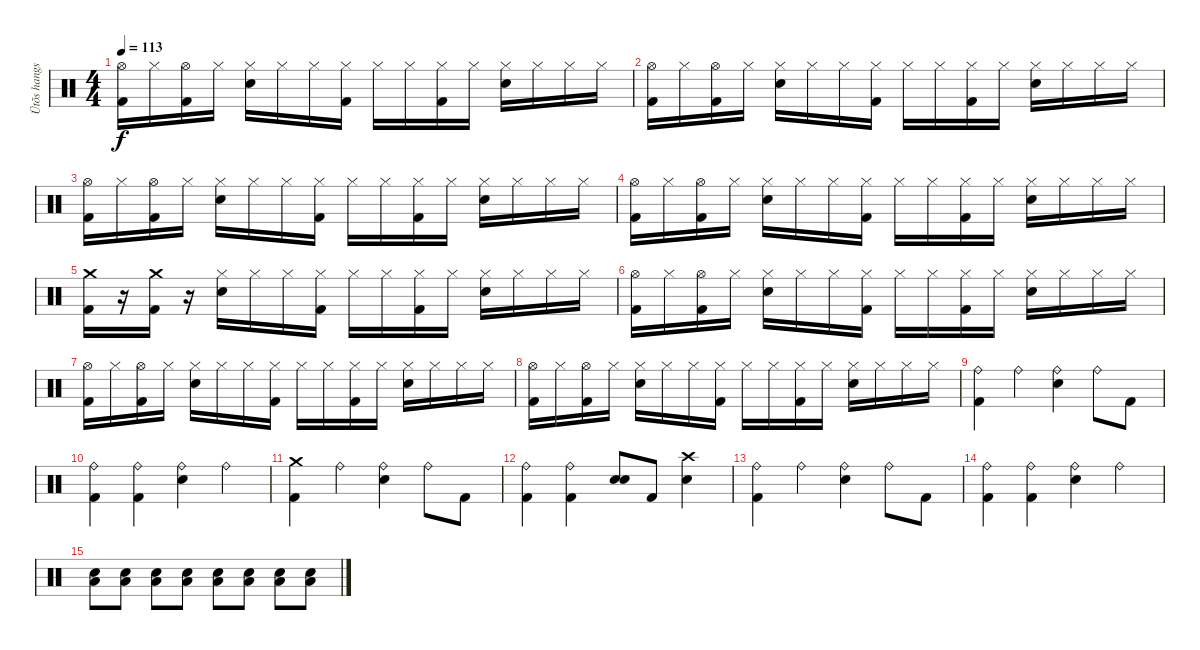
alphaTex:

\track ("Ütõs hangszer" "Ütõs hangs") {instrument percussion}
\staff {score}
\articulation defaults
\ts (4 4)
\tempo 113
\clef neutral
\ks c
("Hi-Hat (open)" "Kick (hit) 2").16{dy f} "Hi-Hat (closed)".16 ("Hi-Hat (open)" "Kick (hit) 2").16 "Hi-Hat (closed)".16 ("Hi-Hat (closed)" "Electric Snare (hit)").16 "Hi-Hat (closed)".16 "Hi-Hat (closed)".16 ("Hi-Hat (closed)" "Kick (hit) 2").16 "Hi-Hat (closed)".16 "Hi-Hat (closed)".16 ("Hi-Hat (closed)" "Kick (hit) 2").16 "Hi-Hat (closed)".16 ("Hi-Hat (closed)" "Electric Snare (hit)").16 "Hi-Hat (closed)".16 "Hi-Hat (closed)".16 "Hi-Hat (closed)".16 |
("Hi-Hat (open)" "Kick (hit) 2").16 "Hi-Hat (closed)".16 ("Hi-Hat (open)" "Kick (hit) 2").16 "Hi-Hat (closed)".16 ("Hi-Hat (closed)" "Electric Snare (hit)").16 "Hi-Hat (closed)".16 "Hi-Hat (closed)".16 ("Hi-Hat (closed)" "Kick (hit) 2").16 "Hi-Hat (closed)".16 "Hi-Hat (closed)".16 ("Hi-Hat (closed)" "Kick (hit) 2").16 "Hi-Hat (closed)".16 ("Hi-Hat (closed)" "Electric Snare (hit)").16 "Hi-Hat (closed)".16 "Hi-Hat (closed)".16 "Hi-Hat (closed)".16 |
("Hi-Hat (open)" "Kick (hit) 2").16 "Hi-Hat (closed)".16 ("Hi-Hat (open)" "Kick (hit) 2").16 "Hi-Hat (closed)".16 ("Hi-Hat (closed)" "Electric Snare (hit)").16 "Hi-Hat (closed)".16 "Hi-Hat (closed)".16 ("Hi-Hat (closed)" "Kick (hit) 2").16 "Hi-Hat (closed)".16 "Hi-Hat (closed)".16 ("Hi-Hat (closed)" "Kick (hit) 2").16 "Hi-Hat (closed)".16 ("Hi-Hat (closed)" "Electric Snare (hit)").16 "Hi-Hat (closed)".16 "Hi-Hat (closed)".16 "Hi-Hat (closed)".16 |
("Hi-Hat (open)" "Kick (hit) 2").16 "Hi-Hat (closed)".16 ("Hi-Hat (open)" "Kick (hit) 2").16 "Hi-Hat (closed)".16 ("Hi-Hat (closed)" "Electric Snare (hit)").16 "Hi-Hat (closed)".16 "Hi-Hat (closed)".16 ("Hi-Hat (closed)" "Kick (hit) 2").16 "Hi-Hat (closed)".16 "Hi-Hat (closed)".16 ("Hi-Hat (closed)" "Kick (hit) 2").16 "Hi-Hat (closed)".16 ("Hi-Hat (closed)" "Electric Snare (hit)").16 "Hi-Hat (closed)".16 "Hi-Hat (closed)".16 "Hi-Hat (closed)".16 |
("Crash medium (hit)" "Kick (hit) 2").16 r.16 ("Crash medium (hit)" "Kick (hit) 2").16 r.16 ("Hi-Hat (closed)" "Electric Snare (hit)").16 "Hi-Hat (closed)".16 "Hi-Hat (closed)".16 ("Hi-Hat (closed)" "Kick (hit) 2").16 "Hi-Hat (closed)".16 "Hi-Hat (closed)".16 ("Hi-Hat (closed)" "Kick (hit) 2").16 "Hi-Hat (closed)".16 ("Hi-Hat (closed)" "Electric Snare (hit)").16 "Hi-Hat (closed)".16 "Hi-Hat (closed)".16 "Hi-Hat (closed)".16 |
("Hi-Hat (open)" "Kick (hit) 2").16 "Hi-Hat (closed)".16 ("Hi-Hat (open)" "Kick (hit) 2").16 "Hi-Hat (closed)".16 ("Hi-Hat (closed)" "Electric Snare (hit)").16 "Hi-Hat (closed)".16 "Hi-Hat (closed)".16 ("Hi-Hat (closed)" "Kick (hit) 2").16 "Hi-Hat (closed)".16 "Hi-Hat (closed)".16 ("Hi-Hat (closed)" "Kick (hit) 2").16 "Hi-Hat (closed)".16 ("Hi-Hat (closed)" "Electric Snare (hit)").16 "Hi-Hat (closed)".16 "Hi-Hat (closed)".16 "Hi-Hat (closed)".16 |
("Hi-Hat (open)" "Kick (hit) 2").16 "Hi-Hat (closed)".16 ("Hi-Hat (open)" "Kick (hit) 2").16 "Hi-Hat (closed)".16 ("Hi-Hat (closed)" "Electric Snare (hit)").16 "Hi-Hat (closed)".16 "Hi-Hat (closed)".16 ("Hi-Hat (closed)" "Kick (hit) 2").16 "Hi-Hat (closed)".16 "Hi-Hat (closed)".16 ("Hi-Hat (closed)" "Kick (hit) 2").16 "Hi-Hat (closed)".16 ("Hi-Hat (closed)" "Electric Snare (hit)").16 "Hi-Hat (closed)".16 "Hi-Hat (closed)".16 "Hi-Hat (closed)".16 |
("Hi-Hat (open)" "Kick (hit) 2").16 "Hi-Hat (closed)".16 ("Hi-Hat (open)" "Kick (hit) 2").16 "Hi-Hat (closed)".16 ("Hi-Hat (closed)" "Electric Snare (hit)").16 "Hi-Hat (closed)".16 "Hi-Hat (closed)".16 ("Hi-Hat (closed)" "Kick (hit) 2").16 "Hi-Hat (closed)".16 "Hi-Hat (closed)".16 ("Hi-Hat (closed)" "Kick (hit) 2").16 "Hi-Hat (closed)".16 ("Hi-Hat (closed)" "Electric Snare (hit)").16 "Hi-Hat (closed)".16 "Hi-Hat (closed)".16 "Hi-Hat (closed)".16 |
("Ride (bell)" "Kick (hit) 2").4 "Ride (bell)".4 ("Ride (bell)" "Electric Snare (hit)").4 "Ride (bell)".8 "Kick (hit) 2".8 |
("Ride (bell)" "Kick (hit) 2").4 ("Ride (bell)" "Kick (hit) 2").4 ("Ride (bell)" "Electric Snare (hit)").4 "Ride (bell)".4 |
("Crash medium (hit)" "Kick (hit) 2").4 "Ride (bell)".4 ("Ride (bell)" "Electric Snare (hit)").4 "Ride (bell)".8 "Kick (hit) 2".8 |
("Ride (bell)" "Kick (hit) 2").4 ("Ride (bell)" "Kick (hit) 2").4 ("Electric Snare (hit)" "Electric Snare (hit)").8 "Kick (hit) 2".8 ("Crash high (hit)" "Electric Snare (hit)").4 |
("Ride (bell)" "Kick (hit) 2").4 "Ride (bell)".4 ("Ride (bell)" "Electric Snare (hit)").4 "Ride (bell)".8 "Kick (hit) 2".8 |
("Ride (bell)" "Kick (hit) 2").4 ("Ride (bell)" "Kick (hit) 2").4 ("Ride (bell)" "Electric Snare (hit)").4 "Ride (bell)".4 |
("Low Floor Tom (hit)" "Electric Snare (hit)").8 ("Low Floor Tom (hit)" "Electric Snare (hit)").8 ("Low Floor Tom (hit)" "Electric Snare (hit)").8 ("Low Floor Tom (hit)" "Electric Snare (hit)").8 ("Low Floor Tom (hit)" "Electric Snare (hit)").8 ("Low Floor Tom (hit)" "Electric Snare (hit)").8 ("Low Floor Tom (hit)" "Electric Snare (hit)").8 ("Low Floor Tom (hit)" "Electric Snare (hit)").8
